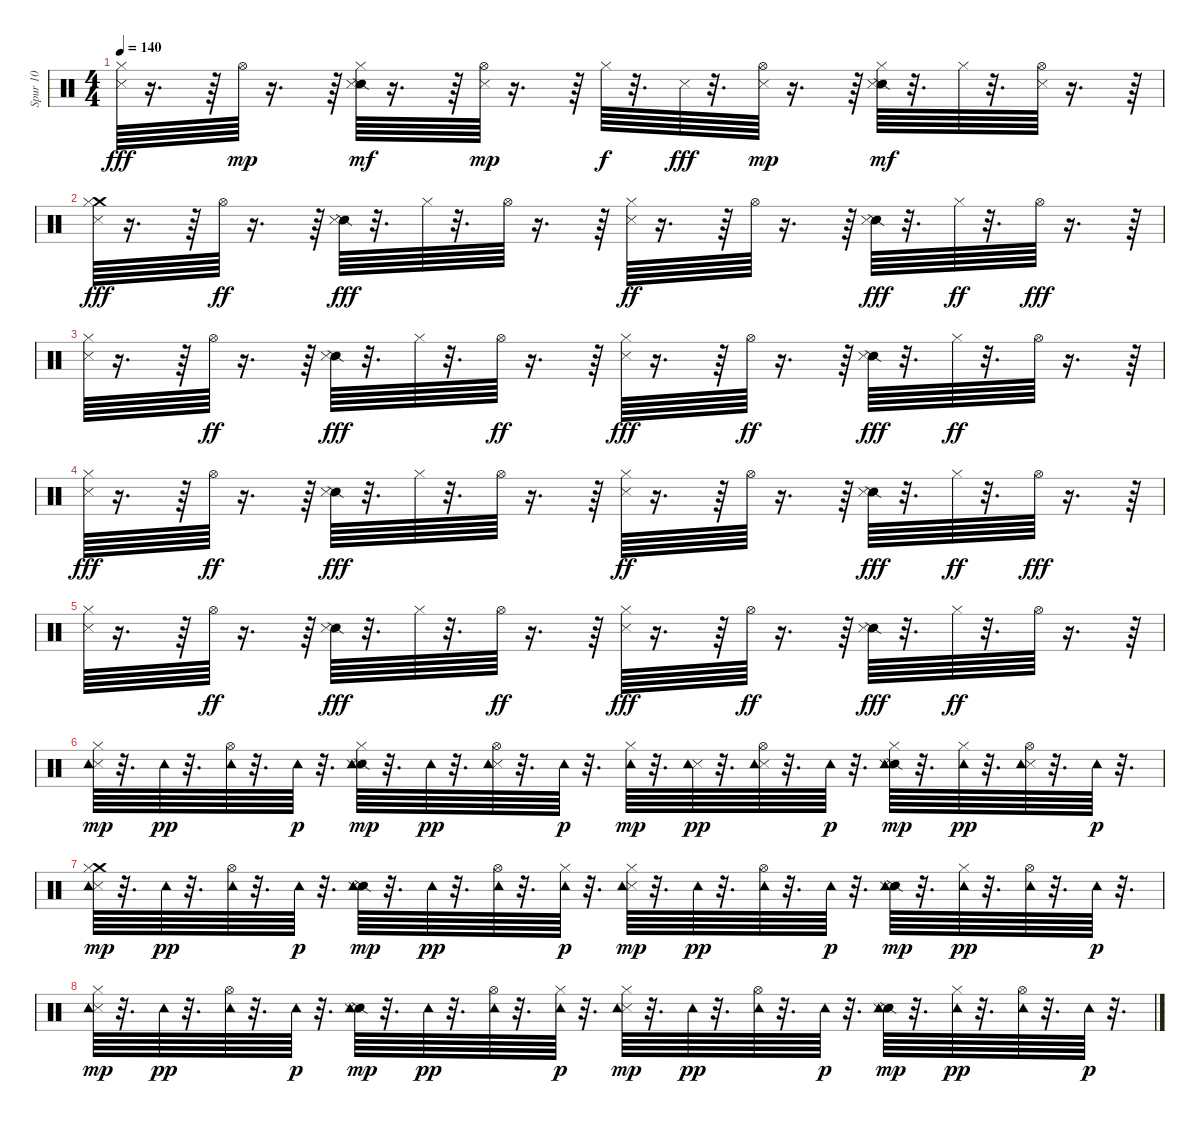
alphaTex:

\track ("Spur 10" "Spur 10") {instrument percussion}
\staff {score}
\articulation defaults
\ts (4 4)
\tempo 140
\clef neutral
\ks c
("Metronome (hit)" "Hi-Hat (closed)").64{dy fff} r.16{d} r.64 "Hi-Hat (open)".64{dy mp} r.16{d} r.64 ("Snare (side stick) 2" "Metronome (hit)" "Hi-Hat (closed)").64{dy mf} r.16{d} r.64 ("Metronome (hit)" "Hi-Hat (open)").64{dy mp} r.16{d} r.64 "Hi-Hat (closed)".64{dy f} r.32{d} "Metronome (hit)".64{dy fff} r.32{d} ("Metronome (hit)" "Hi-Hat (open)").64{dy mp} r.16{d} r.64 ("Snare (side stick) 2" "Metronome (hit)" "Hi-Hat (closed)").64{dy mf} r.32{d} "Hi-Hat (closed)".64 r.32{d} ("Metronome (hit)" "Hi-Hat (open)").64 r.16{d} r.64 |
("Crash medium (hit)" "Metronome (hit)" "Hi-Hat (closed)").64{dy fff} r.16{d} r.64 "Hi-Hat (open)".64{dy ff} r.16{d} r.64 ("Snare (side stick) 2" "Metronome (hit)").64{dy fff} r.32{d} "Hi-Hat (closed)".64 r.32{d} "Hi-Hat (open)".64 r.16{d} r.64 ("Metronome (hit)" "Hi-Hat (closed)").64{dy ff} r.16{d} r.64 "Hi-Hat (open)".64 r.16{d} r.64 ("Snare (side stick) 2" "Metronome (hit)").64{dy fff} r.32{d} "Hi-Hat (closed)".64{dy ff} r.32{d} "Hi-Hat (open)".64{dy fff} r.16{d} r.64 |
("Metronome (hit)" "Hi-Hat (closed)").64 r.16{d} r.64 "Hi-Hat (open)".64{dy ff} r.16{d} r.64 ("Snare (side stick) 2" "Metronome (hit)").64{dy fff} r.32{d} "Hi-Hat (closed)".64 r.32{d} "Hi-Hat (open)".64{dy ff} r.16{d} r.64 ("Metronome (hit)" "Hi-Hat (closed)").64{dy fff} r.16{d} r.64 "Hi-Hat (open)".64{dy ff} r.16{d} r.64 ("Snare (side stick) 2" "Metronome (hit)").64{dy fff} r.32{d} "Hi-Hat (closed)".64{dy ff} r.32{d} "Hi-Hat (open)".64 r.16{d} r.64 |
("Metronome (hit)" "Hi-Hat (closed)").64{dy fff} r.16{d} r.64 "Hi-Hat (open)".64{dy ff} r.16{d} r.64 ("Snare (side stick) 2" "Metronome (hit)").64{dy fff} r.32{d} "Hi-Hat (closed)".64 r.32{d} "Hi-Hat (open)".64 r.16{d} r.64 ("Metronome (hit)" "Hi-Hat (closed)").64{dy ff} r.16{d} r.64 "Hi-Hat (open)".64 r.16{d} r.64 ("Snare (side stick) 2" "Metronome (hit)").64{dy fff} r.32{d} "Hi-Hat (closed)".64{dy ff} r.32{d} "Hi-Hat (open)".64{dy fff} r.16{d} r.64 |
("Metronome (hit)" "Hi-Hat (closed)").64 r.16{d} r.64 "Hi-Hat (open)".64{dy ff} r.16{d} r.64 ("Snare (side stick) 2" "Metronome (hit)").64{dy fff} r.32{d} "Hi-Hat (closed)".64 r.32{d} "Hi-Hat (open)".64{dy ff} r.16{d} r.64 ("Metronome (hit)" "Hi-Hat (closed)").64{dy fff} r.16{d} r.64 "Hi-Hat (open)".64{dy ff} r.16{d} r.64 ("Snare (side stick) 2" "Metronome (hit)").64{dy fff} r.32{d} "Hi-Hat (closed)".64{dy ff} r.32{d} "Hi-Hat (open)".64 r.16{d} r.64 |
("Metronome (hit)" "Hi-Hat (closed)" "Tambourine (hit)").64{dy mp} r.32{d} "Tambourine (hit)".64{dy pp} r.32{d} ("Hi-Hat (open)" "Tambourine (hit)").64 r.32{d} "Tambourine (hit)".64{dy p} r.32{d} ("Snare (side stick) 2" "Metronome (hit)" "Hi-Hat (closed)" "Tambourine (hit)").64{dy mp} r.32{d} "Tambourine (hit)".64{dy pp} r.32{d} ("Metronome (hit)" "Hi-Hat (open)" "Tambourine (hit)").64 r.32{d} "Tambourine (hit)".64{dy p} r.32{d} ("Hi-Hat (closed)" "Tambourine (hit)").64{dy mp} r.32{d} ("Metronome (hit)" "Tambourine (hit)").64{dy pp} r.32{d} ("Metronome (hit)" "Hi-Hat (open)" "Tambourine (hit)").64 r.32{d} "Tambourine (hit)".64{dy p} r.32{d} ("Snare (side stick) 2" "Metronome (hit)" "Hi-Hat (closed)" "Tambourine (hit)").64{dy mp} r.32{d} ("Hi-Hat (closed)" "Tambourine (hit)").64{dy pp} r.32{d} ("Metronome (hit)" "Hi-Hat (open)" "Tambourine (hit)").64 r.32{d} "Tambourine (hit)".64{dy p} r.32{d} |
("Crash medium (hit)" "Metronome (hit)" "Hi-Hat (closed)" "Tambourine (hit)").64{dy mp} r.32{d} "Tambourine (hit)".64{dy pp} r.32{d} ("Hi-Hat (open)" "Tambourine (hit)").64 r.32{d} "Tambourine (hit)".64{dy p} r.32{d} ("Snare (side stick) 2" "Metronome (hit)" "Tambourine (hit)").64{dy mp} r.32{d} "Tambourine (hit)".64{dy pp} r.32{d} ("Hi-Hat (open)" "Tambourine (hit)").64 r.32{d} ("Hi-Hat (closed)" "Tambourine (hit)").64{dy p} r.32{d} ("Metronome (hit)" "Hi-Hat (closed)" "Tambourine (hit)").64{dy mp} r.32{d} "Tambourine (hit)".64{dy pp} r.32{d} ("Hi-Hat (open)" "Tambourine (hit)").64 r.32{d} "Tambourine (hit)".64{dy p} r.32{d} ("Snare (side stick) 2" "Metronome (hit)" "Tambourine (hit)").64{dy mp} r.32{d} ("Hi-Hat (closed)" "Tambourine (hit)").64{dy pp} r.32{d} ("Hi-Hat (open)" "Tambourine (hit)").64 r.32{d} "Tambourine (hit)".64{dy p} r.32{d} |
("Metronome (hit)" "Hi-Hat (closed)" "Tambourine (hit)").64{dy mp} r.32{d} "Tambourine (hit)".64{dy pp} r.32{d} ("Hi-Hat (open)" "Tambourine (hit)").64 r.32{d} "Tambourine (hit)".64{dy p} r.32{d} ("Snare (side stick) 2" "Metronome (hit)" "Tambourine (hit)").64{dy mp} r.32{d} "Tambourine (hit)".64{dy pp} r.32{d} ("Hi-Hat (open)" "Tambourine (hit)").64 r.32{d} ("Hi-Hat (closed)" "Tambourine (hit)").64{dy p} r.32{d} ("Metronome (hit)" "Hi-Hat (closed)" "Tambourine (hit)").64{dy mp} r.32{d} "Tambourine (hit)".64{dy pp} r.32{d} ("Hi-Hat (open)" "Tambourine (hit)").64 r.32{d} "Tambourine (hit)".64{dy p} r.32{d} ("Snare (side stick) 2" "Metronome (hit)" "Tambourine (hit)").64{dy mp} r.32{d} ("Hi-Hat (closed)" "Tambourine (hit)").64{dy pp} r.32{d} ("Hi-Hat (open)" "Tambourine (hit)").64 r.32{d} "Tambourine (hit)".64{dy p} r.32{d}
